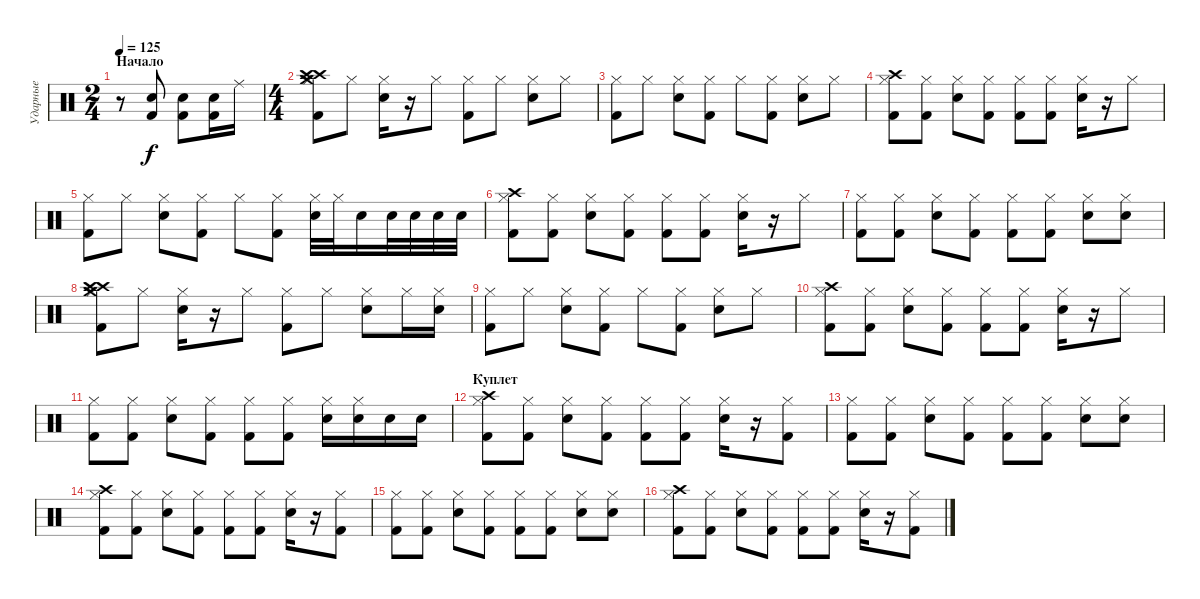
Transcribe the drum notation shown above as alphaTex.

\track ("Ударные" "Ударные") {instrument percussion}
\staff {score}
\articulation defaults
\ts (2 4)
\section ("" "Начало")
\tempo 125
\clef neutral
\ks c
r.8{dy f} ("Electric Snare (hit)" "Kick (hit) 2").8 ("Electric Snare (hit)" "Kick (hit) 2").8 ("Electric Snare (hit)" "Kick (hit) 2").16 "Ride (middle)".16 |
\ts (4 4)
("Hi-Hat (closed)" "Crash medium (hit)" "Kick (hit) 2" "Crash high (hit)" "Crash high (hit)").8 "Hi-Hat (closed)".8 ("Hi-Hat (closed)" "Electric Snare (hit)").16 r.16 "Hi-Hat (closed)".8 ("Hi-Hat (closed)" "Kick (hit) 2").8 "Hi-Hat (closed)".8 ("Hi-Hat (closed)" "Electric Snare (hit)").8 "Hi-Hat (closed)".8 |
("Hi-Hat (closed)" "Kick (hit) 2").8 "Hi-Hat (closed)".8 ("Hi-Hat (closed)" "Electric Snare (hit)").8 ("Hi-Hat (closed)" "Kick (hit) 2").8 "Hi-Hat (closed)".8 ("Hi-Hat (closed)" "Kick (hit) 2").8 ("Hi-Hat (closed)" "Electric Snare (hit)").8 "Hi-Hat (closed)".8 |
("Hi-Hat (closed)" "Kick (hit) 2" "Crash high (hit)").8 ("Hi-Hat (closed)" "Kick (hit) 2").8 ("Hi-Hat (closed)" "Electric Snare (hit)").8 ("Hi-Hat (closed)" "Kick (hit) 2").8 ("Hi-Hat (closed)" "Kick (hit) 2").8 ("Hi-Hat (closed)" "Kick (hit) 2").8 ("Hi-Hat (closed)" "Electric Snare (hit)").16 r.16 "Hi-Hat (closed)".8 |
("Hi-Hat (closed)" "Kick (hit) 2").8 "Hi-Hat (closed)".8 ("Hi-Hat (closed)" "Electric Snare (hit)").8 ("Hi-Hat (closed)" "Kick (hit) 2").8 "Hi-Hat (closed)".8 ("Hi-Hat (closed)" "Kick (hit) 2").8 ("Hi-Hat (closed)" "Electric Snare (hit)").32 "Hi-Hat (closed)".32 "Electric Snare (hit)".16 "Electric Snare (hit)".32 "Electric Snare (hit)".32 "Electric Snare (hit)".32 "Electric Snare (hit)".32 |
("Hi-Hat (closed)" "Kick (hit) 2" "Crash high (hit)").8 ("Hi-Hat (closed)" "Kick (hit) 2").8 ("Hi-Hat (closed)" "Electric Snare (hit)").8 ("Hi-Hat (closed)" "Kick (hit) 2").8 ("Hi-Hat (closed)" "Kick (hit) 2").8 ("Hi-Hat (closed)" "Kick (hit) 2").8 ("Hi-Hat (closed)" "Electric Snare (hit)").16 r.16 "Hi-Hat (closed)".8 |
("Hi-Hat (closed)" "Kick (hit) 2").8 ("Hi-Hat (closed)" "Kick (hit) 2").8 ("Hi-Hat (closed)" "Electric Snare (hit)").8 ("Hi-Hat (closed)" "Kick (hit) 2").8 ("Hi-Hat (closed)" "Kick (hit) 2").8 ("Hi-Hat (closed)" "Kick (hit) 2").8 ("Hi-Hat (closed)" "Electric Snare (hit)").8 ("Hi-Hat (closed)" "Electric Snare (hit)").8 |
("Hi-Hat (closed)" "Crash medium (hit)" "Kick (hit) 2" "Crash high (hit)" "Crash high (hit)").8 "Hi-Hat (closed)".8 ("Hi-Hat (closed)" "Electric Snare (hit)").16 r.16 "Hi-Hat (closed)".8 ("Hi-Hat (closed)" "Kick (hit) 2").8 "Hi-Hat (closed)".8 ("Hi-Hat (closed)" "Electric Snare (hit)").8 "Hi-Hat (closed)".16 ("Hi-Hat (closed)" "Electric Snare (hit)").16 |
("Hi-Hat (closed)" "Kick (hit) 2").8 "Hi-Hat (closed)".8 ("Hi-Hat (closed)" "Electric Snare (hit)").8 ("Hi-Hat (closed)" "Kick (hit) 2").8 "Hi-Hat (closed)".8 ("Hi-Hat (closed)" "Kick (hit) 2").8 ("Hi-Hat (closed)" "Electric Snare (hit)").8 "Hi-Hat (closed)".8 |
("Hi-Hat (closed)" "Kick (hit) 2" "Crash high (hit)").8 ("Hi-Hat (closed)" "Kick (hit) 2").8 ("Hi-Hat (closed)" "Electric Snare (hit)").8 ("Hi-Hat (closed)" "Kick (hit) 2").8 ("Hi-Hat (closed)" "Kick (hit) 2").8 ("Hi-Hat (closed)" "Kick (hit) 2").8 ("Hi-Hat (closed)" "Electric Snare (hit)").16 r.16 "Hi-Hat (closed)".8 |
("Hi-Hat (closed)" "Kick (hit) 2").8 ("Hi-Hat (closed)" "Kick (hit) 2").8 ("Hi-Hat (closed)" "Electric Snare (hit)").8 ("Hi-Hat (closed)" "Kick (hit) 2").8 ("Hi-Hat (closed)" "Kick (hit) 2").8 ("Hi-Hat (closed)" "Kick (hit) 2").8 ("Hi-Hat (closed)" "Electric Snare (hit)").16 ("Hi-Hat (closed)" "Electric Snare (hit)").16 "Electric Snare (hit)".16 "Electric Snare (hit)".16 |
\section ("" "Куплет")
("Hi-Hat (closed)" "Kick (hit) 2" "Crash high (hit)").8 ("Hi-Hat (closed)" "Kick (hit) 2").8 ("Hi-Hat (closed)" "Electric Snare (hit)").8 ("Hi-Hat (closed)" "Kick (hit) 2").8 ("Hi-Hat (closed)" "Kick (hit) 2").8 ("Hi-Hat (closed)" "Kick (hit) 2").8 ("Hi-Hat (closed)" "Electric Snare (hit)").16 r.16 ("Hi-Hat (closed)" "Kick (hit) 2").8 |
("Hi-Hat (closed)" "Kick (hit) 2").8 ("Hi-Hat (closed)" "Kick (hit) 2").8 ("Hi-Hat (closed)" "Electric Snare (hit)").8 ("Hi-Hat (closed)" "Kick (hit) 2").8 ("Hi-Hat (closed)" "Kick (hit) 2").8 ("Hi-Hat (closed)" "Kick (hit) 2").8 ("Hi-Hat (closed)" "Electric Snare (hit)").8 ("Hi-Hat (closed)" "Electric Snare (hit)").8 |
("Hi-Hat (closed)" "Kick (hit) 2" "Crash high (hit)").8 ("Hi-Hat (closed)" "Kick (hit) 2").8 ("Hi-Hat (closed)" "Electric Snare (hit)").8 ("Hi-Hat (closed)" "Kick (hit) 2").8 ("Hi-Hat (closed)" "Kick (hit) 2").8 ("Hi-Hat (closed)" "Kick (hit) 2").8 ("Hi-Hat (closed)" "Electric Snare (hit)").16 r.16 ("Hi-Hat (closed)" "Kick (hit) 2").8 |
("Hi-Hat (closed)" "Kick (hit) 2").8 ("Hi-Hat (closed)" "Kick (hit) 2").8 ("Hi-Hat (closed)" "Electric Snare (hit)").8 ("Hi-Hat (closed)" "Kick (hit) 2").8 ("Hi-Hat (closed)" "Kick (hit) 2").8 ("Hi-Hat (closed)" "Kick (hit) 2").8 ("Hi-Hat (closed)" "Electric Snare (hit)").8 ("Hi-Hat (closed)" "Electric Snare (hit)").8 |
("Hi-Hat (closed)" "Kick (hit) 2" "Crash high (hit)").8 ("Hi-Hat (closed)" "Kick (hit) 2").8 ("Hi-Hat (closed)" "Electric Snare (hit)").8 ("Hi-Hat (closed)" "Kick (hit) 2").8 ("Hi-Hat (closed)" "Kick (hit) 2").8 ("Hi-Hat (closed)" "Kick (hit) 2").8 ("Hi-Hat (closed)" "Electric Snare (hit)").16 r.16 ("Hi-Hat (closed)" "Kick (hit) 2").8
